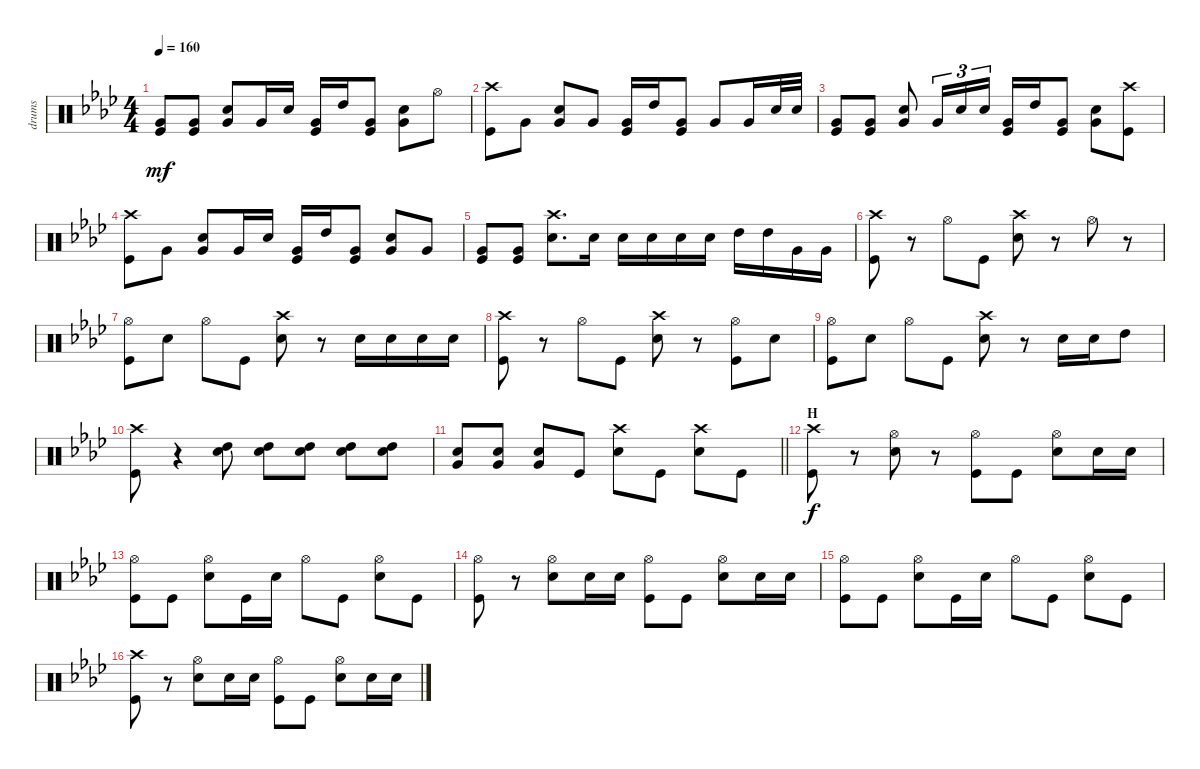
\track ("drums" "drums") {instrument percussion}
\staff {score}
\articulation defaults
\ts (4 4)
\tempo 160
\clef neutral
\ks ab
("Very Low Tom (hit)" "Kick (hit)").8{dy mf} ("Very Low Tom (hit)" "Kick (hit)").8 ("Snare (hit) 2" "Very Low Tom (hit)").8 "Very Low Tom (hit)".16 "Snare (hit) 2".16 ("Very Low Tom (hit)" "Kick (hit)").16 "High Tom (hit)".16 ("Very Low Tom (hit)" "Kick (hit)").8 ("Snare (hit) 2" "Very Low Tom (hit)").8 "Hi-Hat (open)".8 |
("Crash high (hit)" "Kick (hit)").8 "Very Low Tom (hit)".8 ("Snare (hit) 2" "Very Low Tom (hit)").8 "Very Low Tom (hit)".8 ("Very Low Tom (hit)" "Kick (hit)").16 "High Tom (hit)".16 ("Very Low Tom (hit)" "Kick (hit)").8 "Very Low Tom (hit)".8 "Very Low Tom (hit)".16 "Snare (hit) 2".32 "Snare (hit) 2".32 |
("Very Low Tom (hit)" "Kick (hit)").8 ("Very Low Tom (hit)" "Kick (hit)").8 ("Snare (hit) 2" "Very Low Tom (hit)").8 "Very Low Tom (hit)".16{tu (3 2)} "Snare (hit) 2".16{tu (3 2)} "Snare (hit) 2".16{tu (3 2)} ("Very Low Tom (hit)" "Kick (hit)").16 "High Tom (hit)".16 ("Very Low Tom (hit)" "Kick (hit)").8 ("Snare (hit) 2" "Very Low Tom (hit)").8 ("Crash high (hit)" "Kick (hit)").8 |
("Crash high (hit)" "Kick (hit)").8 "Very Low Tom (hit)".8 ("Snare (hit) 2" "Very Low Tom (hit)").8 "Very Low Tom (hit)".16 "Snare (hit) 2".16 ("Very Low Tom (hit)" "Kick (hit)").16 "High Tom (hit)".16 ("Very Low Tom (hit)" "Kick (hit)").8 ("Snare (hit) 2" "Very Low Tom (hit)").8 "Very Low Tom (hit)".8 |
("Very Low Tom (hit)" "Kick (hit)").8 ("Very Low Tom (hit)" "Kick (hit)").8 ("Crash high (hit)" "Snare (hit) 2").8{d} "Snare (hit) 2".16 "Snare (hit) 2".16 "Snare (hit) 2".16 "Snare (hit) 2".16 "Snare (hit) 2".16 "High Tom (hit)".16 "High Tom (hit)".16 "Very Low Tom (hit)".16 "Very Low Tom (hit)".16 |
("Crash high (hit)" "Kick (hit)").8 r.8 "Hi-Hat (open)".8 "Kick (hit)".8 ("Crash high (hit)" "Snare (hit) 2").8 r.8 "Hi-Hat (open)".8 r.8 |
("Hi-Hat (open)" "Kick (hit)").8 "Snare (hit) 2".8 "Hi-Hat (open)".8 "Kick (hit)".8 ("Crash high (hit)" "Snare (hit) 2").8 r.8 "Snare (hit) 2".16 "Snare (hit) 2".16 "Snare (hit) 2".16 "Snare (hit) 2".16 |
("Crash high (hit)" "Kick (hit)").8 r.8 "Hi-Hat (open)".8 "Kick (hit)".8 ("Crash high (hit)" "Snare (hit) 2").8 r.8 ("Hi-Hat (open)" "Kick (hit)").8 "Snare (hit) 2".8 |
("Hi-Hat (open)" "Kick (hit)").8 "Snare (hit) 2".8 "Hi-Hat (open)".8 "Kick (hit)".8 ("Crash high (hit)" "Snare (hit) 2").8 r.8 "Snare (hit) 2".16 "Snare (hit) 2".16 "High Tom (hit)".8 |
("Crash high (hit)" "Kick (hit)").8 r.4 ("High Tom (hit)" "Snare (hit) 2").8 ("High Tom (hit)" "Snare (hit) 2").8 ("High Tom (hit)" "Snare (hit) 2").8 ("High Tom (hit)" "Snare (hit) 2").8 ("High Tom (hit)" "Snare (hit) 2").8 |
\barLineRight lightlight
("Snare (hit) 2" "Very Low Tom (hit)").8 ("Snare (hit) 2" "Very Low Tom (hit)").8 ("Snare (hit) 2" "Very Low Tom (hit)").8 "Kick (hit)".8 ("Crash high (hit)" "Snare (hit) 2").8 "Kick (hit)".8 ("Crash high (hit)" "Snare (hit) 2").8 "Kick (hit)".8 |
\section ("" "H")
("Crash high (hit)" "Kick (hit)").8{dy f} r.8 ("Hi-Hat (open)" "Snare (hit) 2").8 r.8 ("Hi-Hat (open)" "Kick (hit)").8 "Kick (hit)".8 ("Hi-Hat (open)" "Snare (hit) 2").8 "Snare (hit) 2".16 "Snare (hit) 2".16 |
("Hi-Hat (open)" "Kick (hit)").8 "Kick (hit)".8 ("Hi-Hat (open)" "Snare (hit) 2").8 "Kick (hit)".16 "Snare (hit) 2".16 "Hi-Hat (open)".8 "Kick (hit)".8 ("Hi-Hat (open)" "Snare (hit) 2").8 "Kick (hit)".8 |
("Hi-Hat (open)" "Kick (hit)").8 r.8 ("Hi-Hat (open)" "Snare (hit) 2").8 "Snare (hit) 2".16 "Snare (hit) 2".16 ("Hi-Hat (open)" "Kick (hit)").8 "Kick (hit)".8 ("Hi-Hat (open)" "Snare (hit) 2").8 "Snare (hit) 2".16 "Snare (hit) 2".16 |
("Hi-Hat (open)" "Kick (hit)").8 "Kick (hit)".8 ("Hi-Hat (open)" "Snare (hit) 2").8 "Kick (hit)".16 "Snare (hit) 2".16 "Hi-Hat (open)".8 "Kick (hit)".8 ("Hi-Hat (open)" "Snare (hit) 2").8 "Kick (hit)".8 |
("Crash high (hit)" "Kick (hit)").8 r.8 ("Hi-Hat (open)" "Snare (hit) 2").8 "Snare (hit) 2".16 "Snare (hit) 2".16 ("Hi-Hat (open)" "Kick (hit)").8 "Kick (hit)".8 ("Hi-Hat (open)" "Snare (hit) 2").8 "Snare (hit) 2".16 "Snare (hit) 2".16
